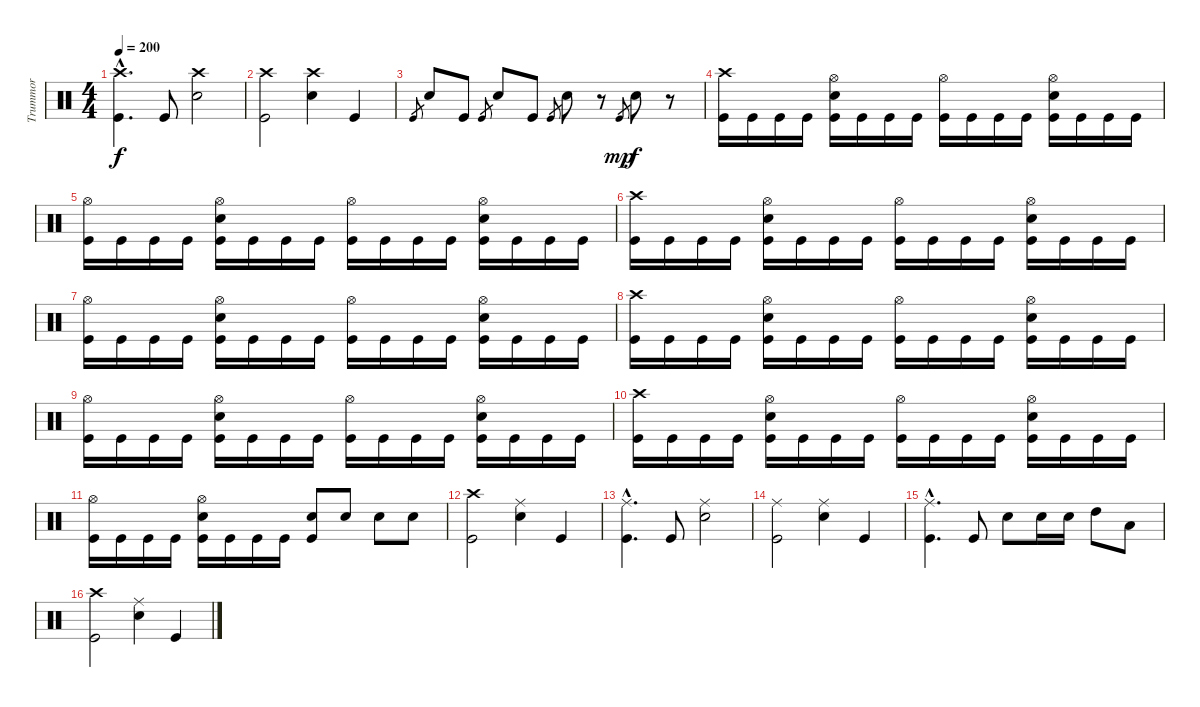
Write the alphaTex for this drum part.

\track ("Trummor" "Trummor") {instrument percussion}
\staff {score}
\articulation defaults
\ts (4 4)
\tempo 200
\clef neutral
\ks c
("Crash high (hit)"{hac} "Kick (hit)"{hac}).4{d dy f} "Kick (hit)".8 ("Crash high (hit)" "Electric Snare (hit)").2 |
("Crash high (hit)" "Kick (hit)").2 ("Crash high (hit)" "Electric Snare (hit)").4 "Kick (hit)".4 |
"Kick (hit)"{sl}.8{gr} "Electric Snare (hit)".8 "Kick (hit)".8 "Kick (hit)"{sl}.8{gr} "Electric Snare (hit)".8 "Kick (hit)".8 "Kick (hit)"{sl}.8{gr} "Electric Snare (hit)".8 r.8 "Kick (hit)"{sl}.8{gr dy mp} "Electric Snare (hit)".8{dy f} r.8 |
("Crash high (hit)" "Kick (hit)").16 "Kick (hit)".16 "Kick (hit)".16 "Kick (hit)".16 ("Hi-Hat (open)" "Electric Snare (hit)" "Kick (hit)").16 "Kick (hit)".16 "Kick (hit)".16 "Kick (hit)".16 ("Hi-Hat (open)" "Kick (hit)").16 "Kick (hit)".16 "Kick (hit)".16 "Kick (hit)".16 ("Hi-Hat (open)" "Electric Snare (hit)" "Kick (hit)").16 "Kick (hit)".16 "Kick (hit)".16 "Kick (hit)".16 |
("Hi-Hat (open)" "Kick (hit)").16 "Kick (hit)".16 "Kick (hit)".16 "Kick (hit)".16 ("Hi-Hat (open)" "Electric Snare (hit)" "Kick (hit)").16 "Kick (hit)".16 "Kick (hit)".16 "Kick (hit)".16 ("Hi-Hat (open)" "Kick (hit)").16 "Kick (hit)".16 "Kick (hit)".16 "Kick (hit)".16 ("Hi-Hat (open)" "Electric Snare (hit)" "Kick (hit)").16 "Kick (hit)".16 "Kick (hit)".16 "Kick (hit)".16 |
("Crash high (hit)" "Kick (hit)").16 "Kick (hit)".16 "Kick (hit)".16 "Kick (hit)".16 ("Hi-Hat (open)" "Electric Snare (hit)" "Kick (hit)").16 "Kick (hit)".16 "Kick (hit)".16 "Kick (hit)".16 ("Hi-Hat (open)" "Kick (hit)").16 "Kick (hit)".16 "Kick (hit)".16 "Kick (hit)".16 ("Hi-Hat (open)" "Electric Snare (hit)" "Kick (hit)").16 "Kick (hit)".16 "Kick (hit)".16 "Kick (hit)".16 |
("Hi-Hat (open)" "Kick (hit)").16 "Kick (hit)".16 "Kick (hit)".16 "Kick (hit)".16 ("Hi-Hat (open)" "Electric Snare (hit)" "Kick (hit)").16 "Kick (hit)".16 "Kick (hit)".16 "Kick (hit)".16 ("Hi-Hat (open)" "Kick (hit)").16 "Kick (hit)".16 "Kick (hit)".16 "Kick (hit)".16 ("Hi-Hat (open)" "Electric Snare (hit)" "Kick (hit)").16 "Kick (hit)".16 "Kick (hit)".16 "Kick (hit)".16 |
("Crash high (hit)" "Kick (hit)").16 "Kick (hit)".16 "Kick (hit)".16 "Kick (hit)".16 ("Hi-Hat (open)" "Electric Snare (hit)" "Kick (hit)").16 "Kick (hit)".16 "Kick (hit)".16 "Kick (hit)".16 ("Hi-Hat (open)" "Kick (hit)").16 "Kick (hit)".16 "Kick (hit)".16 "Kick (hit)".16 ("Hi-Hat (open)" "Electric Snare (hit)" "Kick (hit)").16 "Kick (hit)".16 "Kick (hit)".16 "Kick (hit)".16 |
("Hi-Hat (open)" "Kick (hit)").16 "Kick (hit)".16 "Kick (hit)".16 "Kick (hit)".16 ("Hi-Hat (open)" "Electric Snare (hit)" "Kick (hit)").16 "Kick (hit)".16 "Kick (hit)".16 "Kick (hit)".16 ("Hi-Hat (open)" "Kick (hit)").16 "Kick (hit)".16 "Kick (hit)".16 "Kick (hit)".16 ("Hi-Hat (open)" "Electric Snare (hit)" "Kick (hit)").16 "Kick (hit)".16 "Kick (hit)".16 "Kick (hit)".16 |
("Crash high (hit)" "Kick (hit)").16 "Kick (hit)".16 "Kick (hit)".16 "Kick (hit)".16 ("Hi-Hat (open)" "Electric Snare (hit)" "Kick (hit)").16 "Kick (hit)".16 "Kick (hit)".16 "Kick (hit)".16 ("Hi-Hat (open)" "Kick (hit)").16 "Kick (hit)".16 "Kick (hit)".16 "Kick (hit)".16 ("Hi-Hat (open)" "Electric Snare (hit)" "Kick (hit)").16 "Kick (hit)".16 "Kick (hit)".16 "Kick (hit)".16 |
("Hi-Hat (open)" "Kick (hit)").16 "Kick (hit)".16 "Kick (hit)".16 "Kick (hit)".16 ("Hi-Hat (open)" "Electric Snare (hit)" "Kick (hit)").16 "Kick (hit)".16 "Kick (hit)".16 "Kick (hit)".16 ("Electric Snare (hit)" "Kick (hit)").8 "Electric Snare (hit)".8 "Electric Snare (hit)".8 "Electric Snare (hit)".8 |
("Crash high (hit)" "Kick (hit)").2 ("Ride (middle)" "Electric Snare (hit)").4 "Kick (hit)".4 |
("Ride (middle)"{hac} "Kick (hit)"{hac}).4{d} "Kick (hit)".8 ("Ride (middle)" "Electric Snare (hit)").2 |
("Ride (middle)" "Kick (hit)").2 ("Ride (middle)" "Electric Snare (hit)").4 "Kick (hit)".4 |
("Ride (middle)"{hac} "Kick (hit)"{hac}).4{d} "Kick (hit)".8 "Electric Snare (hit)".8 "Electric Snare (hit)".16 "Electric Snare (hit)".16 "High Tom (hit)".8 "Low Floor Tom (hit)".8 |
("Crash high (hit)" "Kick (hit)").2 ("Ride (middle)" "Electric Snare (hit)").4 "Kick (hit)".4
